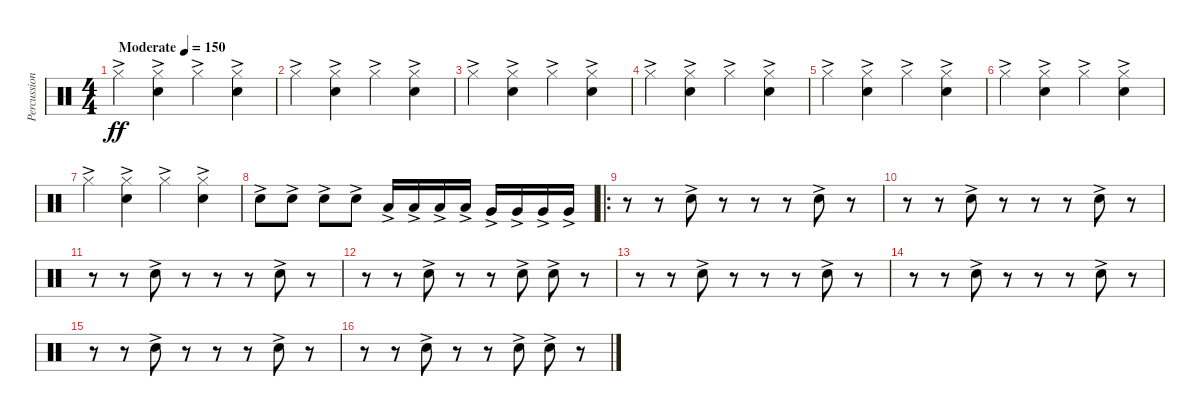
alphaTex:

\track ("Percussion" "Percussion") {instrument percussion}
\staff {score}
\articulation defaults
\ts (4 4)
\tempo (150 "Moderate")
\clef neutral
\ks c "Hi-Hat (closed)"{ac}.4{dy ff}
("Hi-Hat (closed)"{ac} "Snare (hit) 2"{ac}).4 "Hi-Hat (closed)"{ac}.4 ("Hi-Hat (closed)"{ac} "Snare (hit) 2"{ac}).4 |
"Hi-Hat (closed)"{ac}.4 ("Hi-Hat (closed)"{ac} "Snare (hit) 2"{ac}).4 "Hi-Hat (closed)"{ac}.4 ("Hi-Hat (closed)"{ac} "Snare (hit) 2"{ac}).4 |
"Hi-Hat (closed)"{ac}.4 ("Hi-Hat (closed)"{ac} "Snare (hit) 2"{ac}).4 "Hi-Hat (closed)"{ac}.4 ("Hi-Hat (closed)"{ac} "Snare (hit) 2"{ac}).4 |
"Hi-Hat (closed)"{ac}.4 ("Hi-Hat (closed)"{ac} "Snare (hit) 2"{ac}).4 "Hi-Hat (closed)"{ac}.4 ("Hi-Hat (closed)"{ac} "Snare (hit) 2"{ac}).4 |
"Hi-Hat (closed)"{ac}.4 ("Hi-Hat (closed)"{ac} "Snare (hit) 2"{ac}).4 "Hi-Hat (closed)"{ac}.4 ("Hi-Hat (closed)"{ac} "Snare (hit) 2"{ac}).4 |
"Hi-Hat (closed)"{ac}.4 ("Hi-Hat (closed)"{ac} "Snare (hit) 2"{ac}).4 "Hi-Hat (closed)"{ac}.4 ("Hi-Hat (closed)"{ac} "Snare (hit) 2"{ac}).4 |
"Hi-Hat (closed)"{ac}.4 ("Hi-Hat (closed)"{ac} "Snare (hit) 2"{ac}).4 "Hi-Hat (closed)"{ac}.4 ("Hi-Hat (closed)"{ac} "Snare (hit) 2"{ac}).4 |
"Snare (hit) 2"{ac}.8 "Snare (hit) 2"{ac}.8 "Snare (hit) 2"{ac}.8 "Snare (hit) 2"{ac}.8 "Low Tom (hit)"{ac}.16 "Low Tom (hit)"{ac}.16 "Low Tom (hit)"{ac}.16 "Low Tom (hit)"{ac}.16 "Very Low Tom (hit)"{ac}.16 "Very Low Tom (hit)"{ac}.16 "Very Low Tom (hit)"{ac}.16 "Very Low Tom (hit)"{ac}.16 |
\ro
r.8 r.8 "Snare (hit) 2"{ac}.8 r.8 r.8 r.8 "Snare (hit) 2"{ac}.8 r.8 |
r.8 r.8 "Snare (hit) 2"{ac}.8 r.8 r.8 r.8 "Snare (hit) 2"{ac}.8 r.8 |
r.8 r.8 "Snare (hit) 2"{ac}.8 r.8 r.8 r.8 "Snare (hit) 2"{ac}.8 r.8 |
r.8 r.8 "Snare (hit) 2"{ac}.8 r.8 r.8 "Snare (hit) 2"{ac}.8 "Snare (hit) 2"{ac}.8 r.8 |
r.8 r.8 "Snare (hit) 2"{ac}.8 r.8 r.8 r.8 "Snare (hit) 2"{ac}.8 r.8 |
r.8 r.8 "Snare (hit) 2"{ac}.8 r.8 r.8 r.8 "Snare (hit) 2"{ac}.8 r.8 |
r.8 r.8 "Snare (hit) 2"{ac}.8 r.8 r.8 r.8 "Snare (hit) 2"{ac}.8 r.8 |
r.8 r.8 "Snare (hit) 2"{ac}.8 r.8 r.8 "Snare (hit) 2"{ac}.8 "Snare (hit) 2"{ac}.8 r.8
